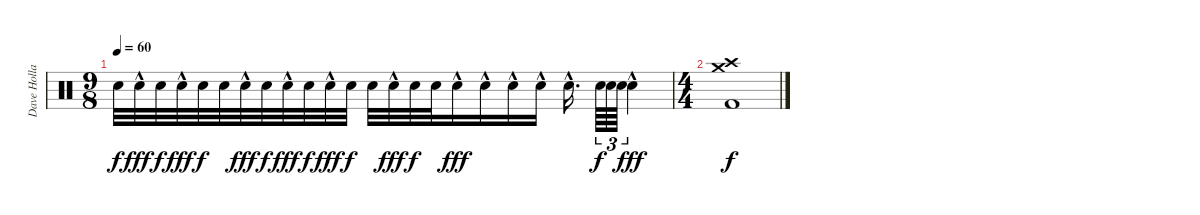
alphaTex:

\track ("Dave Holland" "Dave Holla") {instrument percussion}
\staff {score}
\articulation defaults
\ts (9 8)
\tempo 60
\clef neutral
\ks c "Snare (hit) 2".32{dy f} "Snare (hit) 2"{hac}.32{dy fff} "Snare (hit) 2".32{dy f} "Snare (hit) 2"{hac}.32{dy fff} "Snare (hit) 2".32{dy f} "Snare (hit) 2".32 "Snare (hit) 2"{hac}.32{dy fff} "Snare (hit) 2".32{dy f} "Snare (hit) 2"{hac}.32{dy fff} "Snare (hit) 2".32{dy f} "Snare (hit) 2"{hac}.32{dy fff} "Snare (hit) 2".32{dy f} "Snare (hit) 2".32 "Snare (hit) 2"{hac}.32{dy fff} "Snare (hit) 2".32{dy f} "Snare (hit) 2".32 "Snare (hit) 2"{hac}.16{dy fff} "Snare (hit) 2"{hac}.16 "Snare (hit) 2"{hac}.16 "Snare (hit) 2"{hac}.16 "Snare (hit) 2"{hac}.16{d beam splitsecondary} "Snare (hit) 2".64{tu (3 2) dy f} "Snare (hit) 2".64{tu (3 2)} "Snare (hit) 2".64{tu (3 2)} "Snare (hit) 2"{hac}.4{dy fff}
|
\ts (4 4)
("Crash high (hit)" "Crash medium (hit)" "Kick (hit) 2").1{dy f}
